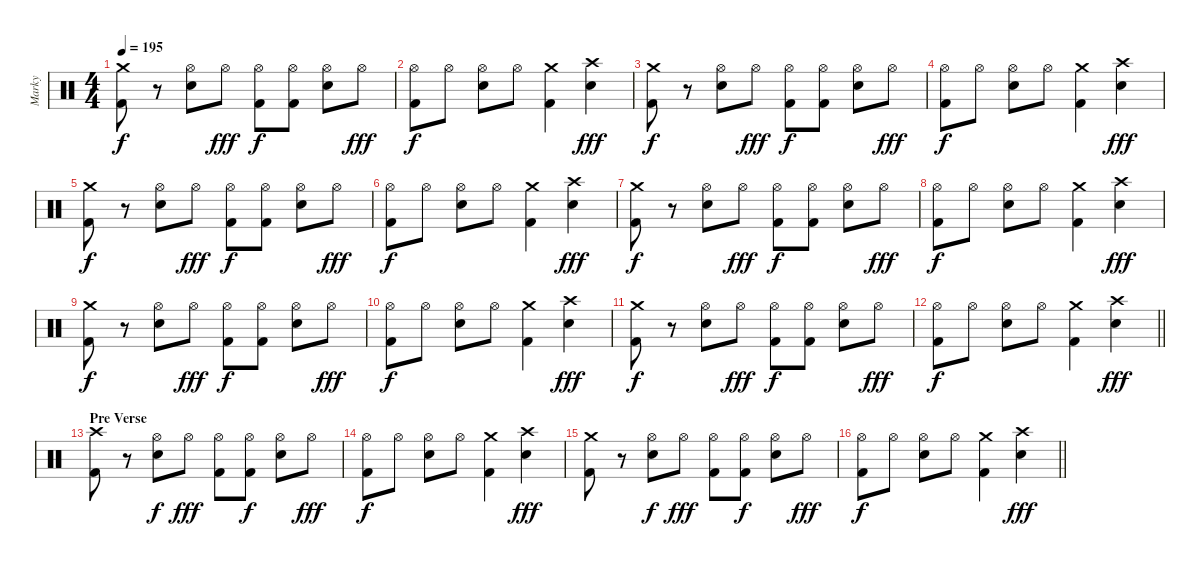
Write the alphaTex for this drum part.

\track ("Marky" "Marky") {instrument percussion}
\staff {score}
\articulation defaults
\ts (4 4)
\tempo 195
\clef neutral
\ks c
("Crash medium (hit)" "Kick (hit) 2").8{dy f} r.8 ("Hi-Hat (open)" "Electric Snare (hit)").8 "Hi-Hat (open)".8{dy fff} ("Hi-Hat (open)" "Kick (hit) 2").8{dy f} ("Hi-Hat (open)" "Kick (hit) 2").8 ("Hi-Hat (open)" "Electric Snare (hit)").8 "Hi-Hat (open)".8{dy fff} |
("Hi-Hat (open)" "Kick (hit) 2").8{dy f} "Hi-Hat (open)".8 ("Hi-Hat (open)" "Electric Snare (hit)").8 "Hi-Hat (open)".8 ("Crash medium (hit)" "Kick (hit) 2").4 ("Crash high (hit)" "Electric Snare (hit)").4{dy fff} |
("Crash medium (hit)" "Kick (hit) 2").8{dy f} r.8 ("Hi-Hat (open)" "Electric Snare (hit)").8 "Hi-Hat (open)".8{dy fff} ("Hi-Hat (open)" "Kick (hit) 2").8{dy f} ("Hi-Hat (open)" "Kick (hit) 2").8 ("Hi-Hat (open)" "Electric Snare (hit)").8 "Hi-Hat (open)".8{dy fff} |
("Hi-Hat (open)" "Kick (hit) 2").8{dy f} "Hi-Hat (open)".8 ("Hi-Hat (open)" "Electric Snare (hit)").8 "Hi-Hat (open)".8 ("Crash medium (hit)" "Kick (hit) 2").4 ("Crash high (hit)" "Electric Snare (hit)").4{dy fff} |
("Crash medium (hit)" "Kick (hit) 2").8{dy f} r.8 ("Hi-Hat (open)" "Electric Snare (hit)").8 "Hi-Hat (open)".8{dy fff} ("Hi-Hat (open)" "Kick (hit) 2").8{dy f} ("Hi-Hat (open)" "Kick (hit) 2").8 ("Hi-Hat (open)" "Electric Snare (hit)").8 "Hi-Hat (open)".8{dy fff} |
("Hi-Hat (open)" "Kick (hit) 2").8{dy f} "Hi-Hat (open)".8 ("Hi-Hat (open)" "Electric Snare (hit)").8 "Hi-Hat (open)".8 ("Crash medium (hit)" "Kick (hit) 2").4 ("Crash high (hit)" "Electric Snare (hit)").4{dy fff} |
("Crash medium (hit)" "Kick (hit) 2").8{dy f} r.8 ("Hi-Hat (open)" "Electric Snare (hit)").8 "Hi-Hat (open)".8{dy fff} ("Hi-Hat (open)" "Kick (hit) 2").8{dy f} ("Hi-Hat (open)" "Kick (hit) 2").8 ("Hi-Hat (open)" "Electric Snare (hit)").8 "Hi-Hat (open)".8{dy fff} |
("Hi-Hat (open)" "Kick (hit) 2").8{dy f} "Hi-Hat (open)".8 ("Hi-Hat (open)" "Electric Snare (hit)").8 "Hi-Hat (open)".8 ("Crash medium (hit)" "Kick (hit) 2").4 ("Crash high (hit)" "Electric Snare (hit)").4{dy fff} |
("Crash medium (hit)" "Kick (hit) 2").8{dy f} r.8 ("Hi-Hat (open)" "Electric Snare (hit)").8 "Hi-Hat (open)".8{dy fff} ("Hi-Hat (open)" "Kick (hit) 2").8{dy f} ("Hi-Hat (open)" "Kick (hit) 2").8 ("Hi-Hat (open)" "Electric Snare (hit)").8 "Hi-Hat (open)".8{dy fff} |
("Hi-Hat (open)" "Kick (hit) 2").8{dy f} "Hi-Hat (open)".8 ("Hi-Hat (open)" "Electric Snare (hit)").8 "Hi-Hat (open)".8 ("Crash medium (hit)" "Kick (hit) 2").4 ("Crash high (hit)" "Electric Snare (hit)").4{dy fff} |
("Crash medium (hit)" "Kick (hit) 2").8{dy f} r.8 ("Hi-Hat (open)" "Electric Snare (hit)").8 "Hi-Hat (open)".8{dy fff} ("Hi-Hat (open)" "Kick (hit) 2").8{dy f} ("Hi-Hat (open)" "Kick (hit) 2").8 ("Hi-Hat (open)" "Electric Snare (hit)").8 "Hi-Hat (open)".8{dy fff} |
\barLineRight lightlight
("Hi-Hat (open)" "Kick (hit) 2").8{dy f} "Hi-Hat (open)".8 ("Hi-Hat (open)" "Electric Snare (hit)").8 "Hi-Hat (open)".8 ("Crash medium (hit)" "Kick (hit) 2").4 ("Crash high (hit)" "Electric Snare (hit)").4{dy fff} |
\section ("" "Pre Verse")
("Crash high (hit)" "Kick (hit) 2").8 r.8 ("Hi-Hat (open)" "Electric Snare (hit)").8{dy f} "Hi-Hat (open)".8{dy fff} ("Hi-Hat (open)" "Kick (hit) 2").8 ("Hi-Hat (open)" "Kick (hit) 2").8{dy f} ("Hi-Hat (open)" "Electric Snare (hit)").8 "Hi-Hat (open)".8{dy fff} |
("Hi-Hat (open)" "Kick (hit) 2").8{dy f} "Hi-Hat (open)".8 ("Hi-Hat (open)" "Electric Snare (hit)").8 "Hi-Hat (open)".8 ("Crash medium (hit)" "Kick (hit) 2").4 ("Crash high (hit)" "Electric Snare (hit)").4{dy fff} |
("Crash medium (hit)" "Kick (hit) 2").8 r.8 ("Hi-Hat (open)" "Electric Snare (hit)").8{dy f} "Hi-Hat (open)".8{dy fff} ("Hi-Hat (open)" "Kick (hit) 2").8 ("Hi-Hat (open)" "Kick (hit) 2").8{dy f} ("Hi-Hat (open)" "Electric Snare (hit)").8 "Hi-Hat (open)".8{dy fff} |
\barLineRight lightlight
("Hi-Hat (open)" "Kick (hit) 2").8{dy f} "Hi-Hat (open)".8 ("Hi-Hat (open)" "Electric Snare (hit)").8 "Hi-Hat (open)".8 ("Crash medium (hit)" "Kick (hit) 2").4 ("Crash high (hit)" "Electric Snare (hit)").4{dy fff}
